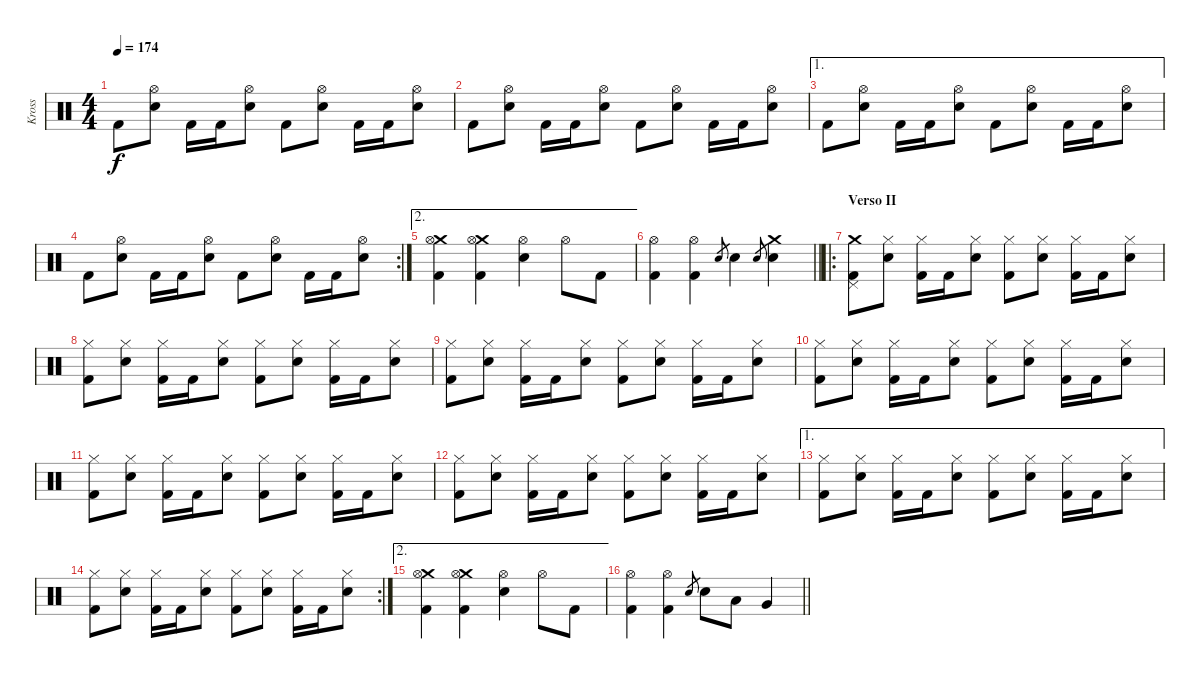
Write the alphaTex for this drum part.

\track ("Kross" "Kross") {instrument percussion}
\staff {score}
\articulation defaults
\ts (4 4)
\tempo 174
\clef neutral
\ks c "Kick (hit) 2".8{dy f}
("Hi-Hat (open)" "Electric Snare (hit)").8 "Kick (hit) 2".16 "Kick (hit) 2".16 ("Hi-Hat (open)" "Electric Snare (hit)").8 "Kick (hit) 2".8 ("Hi-Hat (open)" "Electric Snare (hit)").8 "Kick (hit) 2".16 "Kick (hit) 2".16 ("Hi-Hat (open)" "Electric Snare (hit)").8 |
"Kick (hit) 2".8 ("Hi-Hat (open)" "Electric Snare (hit)").8 "Kick (hit) 2".16 "Kick (hit) 2".16 ("Hi-Hat (open)" "Electric Snare (hit)").8 "Kick (hit) 2".8 ("Hi-Hat (open)" "Electric Snare (hit)").8 "Kick (hit) 2".16 "Kick (hit) 2".16 ("Hi-Hat (open)" "Electric Snare (hit)").8 |
\ae 1 "Kick (hit) 2".8
("Hi-Hat (open)" "Electric Snare (hit)").8 "Kick (hit) 2".16 "Kick (hit) 2".16 ("Hi-Hat (open)" "Electric Snare (hit)").8 "Kick (hit) 2".8 ("Hi-Hat (open)" "Electric Snare (hit)").8 "Kick (hit) 2".16 "Kick (hit) 2".16 ("Hi-Hat (open)" "Electric Snare (hit)").8 |
\rc 2 "Kick (hit) 2".8
("Hi-Hat (open)" "Electric Snare (hit)").8 "Kick (hit) 2".16 "Kick (hit) 2".16 ("Hi-Hat (open)" "Electric Snare (hit)").8 "Kick (hit) 2".8 ("Hi-Hat (open)" "Electric Snare (hit)").8 "Kick (hit) 2".16 "Kick (hit) 2".16 ("Hi-Hat (open)" "Electric Snare (hit)").8 |
\ae 2
("Crash medium (hit)" "Hi-Hat (open)" "Kick (hit) 2").4 ("Crash medium (hit)" "Hi-Hat (open)" "Kick (hit) 2").4 ("Hi-Hat (open)" "Electric Snare (hit)").4 "Hi-Hat (open)".8 "Kick (hit) 2".8 |
\barLineRight lightlight
("Hi-Hat (open)" "Kick (hit) 2").4 ("Hi-Hat (open)" "Kick (hit) 2").4 "Electric Snare (hit)".8{gr} "Electric Snare (hit)".4 "Electric Snare (hit)".8{gr} ("Crash medium (hit)" "Electric Snare (hit)").4 |
\ro
\section ("" "Verso II")
("Crash medium (hit)" "Pedal Hi-Hat (hit)" "Kick (hit) 2").8 ("Hi-Hat (closed)" "Electric Snare (hit)").8 ("Hi-Hat (closed)" "Kick (hit) 2").16 "Kick (hit) 2".16 ("Hi-Hat (closed)" "Electric Snare (hit)").8 ("Hi-Hat (closed)" "Kick (hit) 2").8 ("Hi-Hat (closed)" "Electric Snare (hit)").8 ("Hi-Hat (closed)" "Kick (hit) 2").16 "Kick (hit) 2".16 ("Hi-Hat (closed)" "Electric Snare (hit)").8 |
("Hi-Hat (closed)" "Kick (hit) 2").8 ("Hi-Hat (closed)" "Electric Snare (hit)").8 ("Hi-Hat (closed)" "Kick (hit) 2").16 "Kick (hit) 2".16 ("Hi-Hat (closed)" "Electric Snare (hit)").8 ("Hi-Hat (closed)" "Kick (hit) 2").8 ("Hi-Hat (closed)" "Electric Snare (hit)").8 ("Hi-Hat (closed)" "Kick (hit) 2").16 "Kick (hit) 2".16 ("Hi-Hat (closed)" "Electric Snare (hit)").8 |
("Hi-Hat (closed)" "Kick (hit) 2").8 ("Hi-Hat (closed)" "Electric Snare (hit)").8 ("Hi-Hat (closed)" "Kick (hit) 2").16 "Kick (hit) 2".16 ("Hi-Hat (closed)" "Electric Snare (hit)").8 ("Hi-Hat (closed)" "Kick (hit) 2").8 ("Hi-Hat (closed)" "Electric Snare (hit)").8 ("Hi-Hat (closed)" "Kick (hit) 2").16 "Kick (hit) 2".16 ("Hi-Hat (closed)" "Electric Snare (hit)").8 |
("Hi-Hat (closed)" "Kick (hit) 2").8 ("Hi-Hat (closed)" "Electric Snare (hit)").8 ("Hi-Hat (closed)" "Kick (hit) 2").16 "Kick (hit) 2".16 ("Hi-Hat (closed)" "Electric Snare (hit)").8 ("Hi-Hat (closed)" "Kick (hit) 2").8 ("Hi-Hat (closed)" "Electric Snare (hit)").8 ("Hi-Hat (closed)" "Kick (hit) 2").16 "Kick (hit) 2".16 ("Hi-Hat (closed)" "Electric Snare (hit)").8 |
("Hi-Hat (closed)" "Kick (hit) 2").8 ("Hi-Hat (closed)" "Electric Snare (hit)").8 ("Hi-Hat (closed)" "Kick (hit) 2").16 "Kick (hit) 2".16 ("Hi-Hat (closed)" "Electric Snare (hit)").8 ("Hi-Hat (closed)" "Kick (hit) 2").8 ("Hi-Hat (closed)" "Electric Snare (hit)").8 ("Hi-Hat (closed)" "Kick (hit) 2").16 "Kick (hit) 2".16 ("Hi-Hat (closed)" "Electric Snare (hit)").8 |
("Hi-Hat (closed)" "Kick (hit) 2").8 ("Hi-Hat (closed)" "Electric Snare (hit)").8 ("Hi-Hat (closed)" "Kick (hit) 2").16 "Kick (hit) 2".16 ("Hi-Hat (closed)" "Electric Snare (hit)").8 ("Hi-Hat (closed)" "Kick (hit) 2").8 ("Hi-Hat (closed)" "Electric Snare (hit)").8 ("Hi-Hat (closed)" "Kick (hit) 2").16 "Kick (hit) 2".16 ("Hi-Hat (closed)" "Electric Snare (hit)").8 |
\ae 1
("Hi-Hat (closed)" "Kick (hit) 2").8 ("Hi-Hat (closed)" "Electric Snare (hit)").8 ("Hi-Hat (closed)" "Kick (hit) 2").16 "Kick (hit) 2".16 ("Hi-Hat (closed)" "Electric Snare (hit)").8 ("Hi-Hat (closed)" "Kick (hit) 2").8 ("Hi-Hat (closed)" "Electric Snare (hit)").8 ("Hi-Hat (closed)" "Kick (hit) 2").16 "Kick (hit) 2".16 ("Hi-Hat (closed)" "Electric Snare (hit)").8 |
\rc 2
("Hi-Hat (closed)" "Kick (hit) 2").8 ("Hi-Hat (closed)" "Electric Snare (hit)").8 ("Hi-Hat (closed)" "Kick (hit) 2").16 "Kick (hit) 2".16 ("Hi-Hat (closed)" "Electric Snare (hit)").8 ("Hi-Hat (closed)" "Kick (hit) 2").8 ("Hi-Hat (closed)" "Electric Snare (hit)").8 ("Hi-Hat (closed)" "Kick (hit) 2").16 "Kick (hit) 2".16 ("Hi-Hat (closed)" "Electric Snare (hit)").8 |
\ae 2
("Crash medium (hit)" "Hi-Hat (open)" "Kick (hit) 2").4 ("Crash medium (hit)" "Hi-Hat (open)" "Kick (hit) 2").4 ("Hi-Hat (open)" "Electric Snare (hit)").4 "Hi-Hat (open)".8 "Kick (hit) 2".8 |
\barLineRight lightlight
("Hi-Hat (open)" "Kick (hit) 2").4 ("Hi-Hat (open)" "Kick (hit) 2").4 "Electric Snare (hit)".8{gr} "Electric Snare (hit)".8 "Low Tom (hit)".8 "Very Low Tom (hit)".4
